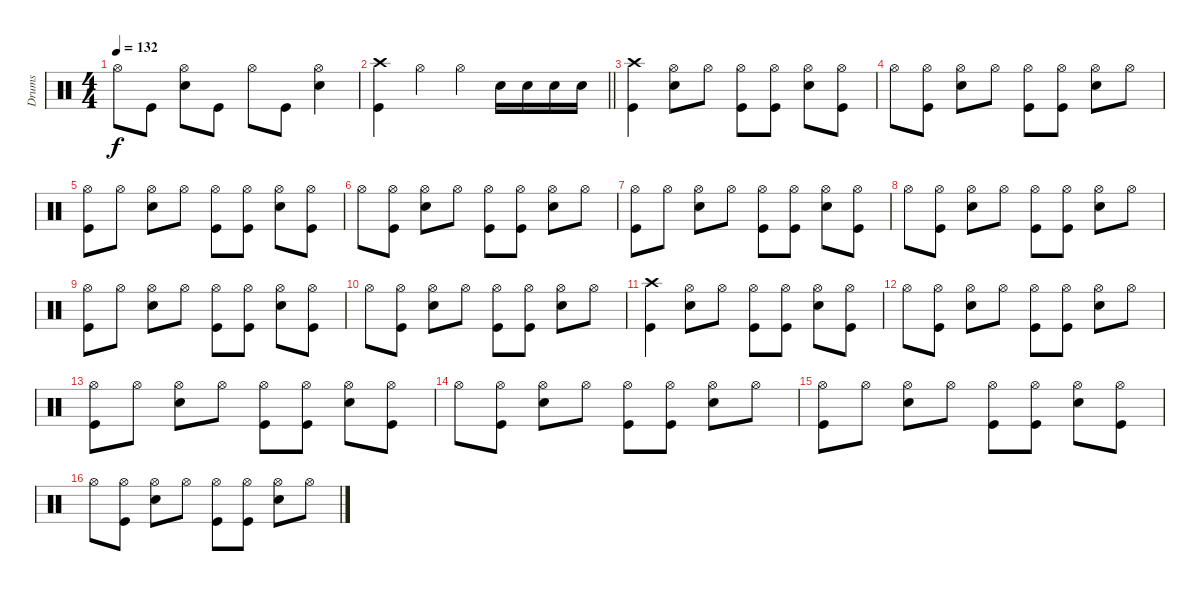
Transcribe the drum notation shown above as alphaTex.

\track ("Drums" "Drums") {instrument percussion}
\staff {score}
\articulation defaults
\ts (4 4)
\tempo 132
\clef neutral
\ks c "Hi-Hat (open)".8{dy f} "Kick (hit)".8
("Hi-Hat (open)" "Electric Snare (hit)").8 "Kick (hit)".8 "Hi-Hat (open)".8 "Kick (hit)".8 ("Hi-Hat (open)" "Electric Snare (hit)").4 |
\barLineRight lightlight
("Crash high (hit)" "Kick (hit)").4 "Hi-Hat (open)".4 "Hi-Hat (open)".4 "Electric Snare (hit)".16 "Electric Snare (hit)".16 "Electric Snare (hit)".16 "Electric Snare (hit)".16 |
("Crash high (hit)" "Kick (hit)").4 ("Hi-Hat (open)" "Electric Snare (hit)").8 "Hi-Hat (open)".8 ("Hi-Hat (open)" "Kick (hit)").8 ("Hi-Hat (open)" "Kick (hit)").8 ("Hi-Hat (open)" "Electric Snare (hit)").8 ("Hi-Hat (open)" "Kick (hit)").8 |
"Hi-Hat (open)".8 ("Hi-Hat (open)" "Kick (hit)").8 ("Hi-Hat (open)" "Electric Snare (hit)").8 "Hi-Hat (open)".8 ("Hi-Hat (open)" "Kick (hit)").8 ("Hi-Hat (open)" "Kick (hit)").8 ("Hi-Hat (open)" "Electric Snare (hit)").8 "Hi-Hat (open)".8 |
("Hi-Hat (open)" "Kick (hit)").8 "Hi-Hat (open)".8 ("Hi-Hat (open)" "Electric Snare (hit)").8 "Hi-Hat (open)".8 ("Hi-Hat (open)" "Kick (hit)").8 ("Hi-Hat (open)" "Kick (hit)").8 ("Hi-Hat (open)" "Electric Snare (hit)").8 ("Hi-Hat (open)" "Kick (hit)").8 |
"Hi-Hat (open)".8 ("Hi-Hat (open)" "Kick (hit)").8 ("Hi-Hat (open)" "Electric Snare (hit)").8 "Hi-Hat (open)".8 ("Hi-Hat (open)" "Kick (hit)").8 ("Hi-Hat (open)" "Kick (hit)").8 ("Hi-Hat (open)" "Electric Snare (hit)").8 "Hi-Hat (open)".8 |
("Hi-Hat (open)" "Kick (hit)").8 "Hi-Hat (open)".8 ("Hi-Hat (open)" "Electric Snare (hit)").8 "Hi-Hat (open)".8 ("Hi-Hat (open)" "Kick (hit)").8 ("Hi-Hat (open)" "Kick (hit)").8 ("Hi-Hat (open)" "Electric Snare (hit)").8 ("Hi-Hat (open)" "Kick (hit)").8 |
"Hi-Hat (open)".8 ("Hi-Hat (open)" "Kick (hit)").8 ("Hi-Hat (open)" "Electric Snare (hit)").8 "Hi-Hat (open)".8 ("Hi-Hat (open)" "Kick (hit)").8 ("Hi-Hat (open)" "Kick (hit)").8 ("Hi-Hat (open)" "Electric Snare (hit)").8 "Hi-Hat (open)".8 |
("Hi-Hat (open)" "Kick (hit)").8 "Hi-Hat (open)".8 ("Hi-Hat (open)" "Electric Snare (hit)").8 "Hi-Hat (open)".8 ("Hi-Hat (open)" "Kick (hit)").8 ("Hi-Hat (open)" "Kick (hit)").8 ("Hi-Hat (open)" "Electric Snare (hit)").8 ("Hi-Hat (open)" "Kick (hit)").8 |
"Hi-Hat (open)".8 ("Hi-Hat (open)" "Kick (hit)").8 ("Hi-Hat (open)" "Electric Snare (hit)").8 "Hi-Hat (open)".8 ("Hi-Hat (open)" "Kick (hit)").8 ("Hi-Hat (open)" "Kick (hit)").8 ("Hi-Hat (open)" "Electric Snare (hit)").8 "Hi-Hat (open)".8 |
("Crash high (hit)" "Kick (hit)").4 ("Hi-Hat (open)" "Electric Snare (hit)").8 "Hi-Hat (open)".8 ("Hi-Hat (open)" "Kick (hit)").8 ("Hi-Hat (open)" "Kick (hit)").8 ("Hi-Hat (open)" "Electric Snare (hit)").8 ("Hi-Hat (open)" "Kick (hit)").8 |
"Hi-Hat (open)".8 ("Hi-Hat (open)" "Kick (hit)").8 ("Hi-Hat (open)" "Electric Snare (hit)").8 "Hi-Hat (open)".8 ("Hi-Hat (open)" "Kick (hit)").8 ("Hi-Hat (open)" "Kick (hit)").8 ("Hi-Hat (open)" "Electric Snare (hit)").8 "Hi-Hat (open)".8 |
("Hi-Hat (open)" "Kick (hit)").8 "Hi-Hat (open)".8 ("Hi-Hat (open)" "Electric Snare (hit)").8 "Hi-Hat (open)".8 ("Hi-Hat (open)" "Kick (hit)").8 ("Hi-Hat (open)" "Kick (hit)").8 ("Hi-Hat (open)" "Electric Snare (hit)").8 ("Hi-Hat (open)" "Kick (hit)").8 |
"Hi-Hat (open)".8 ("Hi-Hat (open)" "Kick (hit)").8 ("Hi-Hat (open)" "Electric Snare (hit)").8 "Hi-Hat (open)".8 ("Hi-Hat (open)" "Kick (hit)").8 ("Hi-Hat (open)" "Kick (hit)").8 ("Hi-Hat (open)" "Electric Snare (hit)").8 "Hi-Hat (open)".8 |
("Hi-Hat (open)" "Kick (hit)").8 "Hi-Hat (open)".8 ("Hi-Hat (open)" "Electric Snare (hit)").8 "Hi-Hat (open)".8 ("Hi-Hat (open)" "Kick (hit)").8 ("Hi-Hat (open)" "Kick (hit)").8 ("Hi-Hat (open)" "Electric Snare (hit)").8 ("Hi-Hat (open)" "Kick (hit)").8 |
"Hi-Hat (open)".8 ("Hi-Hat (open)" "Kick (hit)").8 ("Hi-Hat (open)" "Electric Snare (hit)").8 "Hi-Hat (open)".8 ("Hi-Hat (open)" "Kick (hit)").8 ("Hi-Hat (open)" "Kick (hit)").8 ("Hi-Hat (open)" "Electric Snare (hit)").8 "Hi-Hat (open)".8
